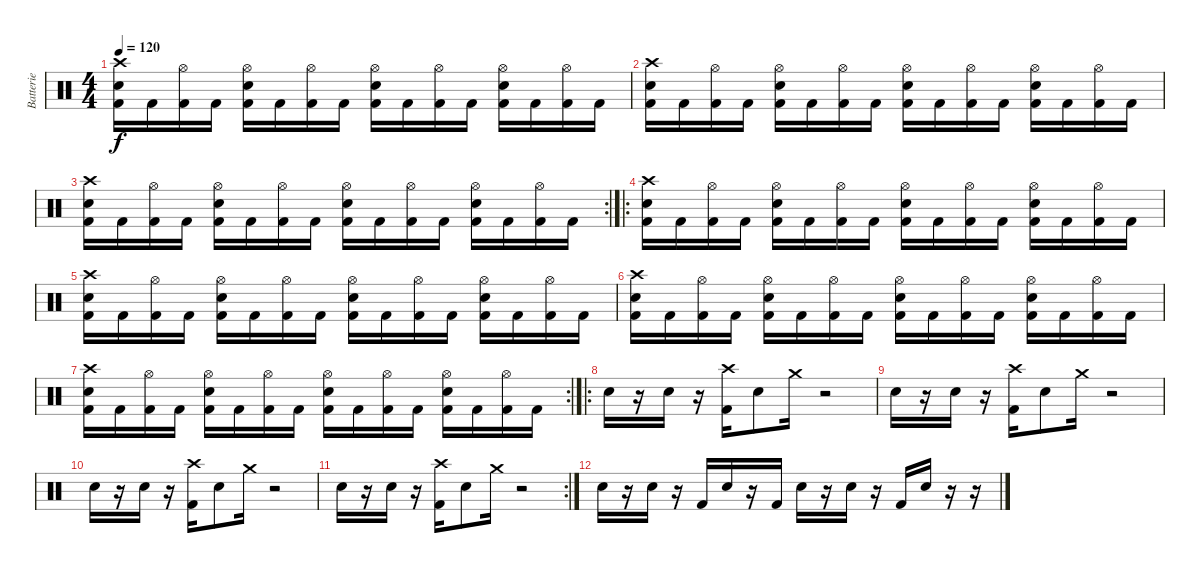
\track ("Batterie" "Batterie") {instrument percussion}
\staff {score}
\articulation defaults
\ts (4 4)
\tempo 120
\clef neutral
\ks c
("Crash high (hit)" "Electric Snare (hit)" "Kick (hit) 2").16{dy f} "Kick (hit) 2".16 ("Hi-Hat (open)" "Kick (hit) 2").16 "Kick (hit) 2".16 ("Hi-Hat (open)" "Electric Snare (hit)" "Kick (hit) 2").16 "Kick (hit) 2".16 ("Hi-Hat (open)" "Kick (hit) 2").16 "Kick (hit) 2".16 ("Hi-Hat (open)" "Electric Snare (hit)" "Kick (hit) 2").16 "Kick (hit) 2".16 ("Hi-Hat (open)" "Kick (hit) 2").16 "Kick (hit) 2".16 ("Hi-Hat (open)" "Electric Snare (hit)" "Kick (hit) 2").16 "Kick (hit) 2".16 ("Hi-Hat (open)" "Kick (hit) 2").16 "Kick (hit) 2".16 |
("Crash high (hit)" "Electric Snare (hit)" "Kick (hit) 2").16 "Kick (hit) 2".16 ("Hi-Hat (open)" "Kick (hit) 2").16 "Kick (hit) 2".16 ("Hi-Hat (open)" "Electric Snare (hit)" "Kick (hit) 2").16 "Kick (hit) 2".16 ("Hi-Hat (open)" "Kick (hit) 2").16 "Kick (hit) 2".16 ("Hi-Hat (open)" "Electric Snare (hit)" "Kick (hit) 2").16 "Kick (hit) 2".16 ("Hi-Hat (open)" "Kick (hit) 2").16 "Kick (hit) 2".16 ("Hi-Hat (open)" "Electric Snare (hit)" "Kick (hit) 2").16 "Kick (hit) 2".16 ("Hi-Hat (open)" "Kick (hit) 2").16 "Kick (hit) 2".16 |
\rc 2
("Crash high (hit)" "Electric Snare (hit)" "Kick (hit) 2").16 "Kick (hit) 2".16 ("Hi-Hat (open)" "Kick (hit) 2").16 "Kick (hit) 2".16 ("Hi-Hat (open)" "Electric Snare (hit)" "Kick (hit) 2").16 "Kick (hit) 2".16 ("Hi-Hat (open)" "Kick (hit) 2").16 "Kick (hit) 2".16 ("Hi-Hat (open)" "Electric Snare (hit)" "Kick (hit) 2").16 "Kick (hit) 2".16 ("Hi-Hat (open)" "Kick (hit) 2").16 "Kick (hit) 2".16 ("Hi-Hat (open)" "Electric Snare (hit)" "Kick (hit) 2").16 "Kick (hit) 2".16 ("Hi-Hat (open)" "Kick (hit) 2").16 "Kick (hit) 2".16 |
\ro
("Crash high (hit)" "Electric Snare (hit)" "Kick (hit) 2").16 "Kick (hit) 2".16 ("Hi-Hat (open)" "Kick (hit) 2").16 "Kick (hit) 2".16 ("Hi-Hat (open)" "Electric Snare (hit)" "Kick (hit) 2").16 "Kick (hit) 2".16 ("Hi-Hat (open)" "Kick (hit) 2").16 "Kick (hit) 2".16 ("Hi-Hat (open)" "Electric Snare (hit)" "Kick (hit) 2").16 "Kick (hit) 2".16 ("Hi-Hat (open)" "Kick (hit) 2").16 "Kick (hit) 2".16 ("Hi-Hat (open)" "Electric Snare (hit)" "Kick (hit) 2").16 "Kick (hit) 2".16 ("Hi-Hat (open)" "Kick (hit) 2").16 "Kick (hit) 2".16 |
("Crash high (hit)" "Electric Snare (hit)" "Kick (hit) 2").16 "Kick (hit) 2".16 ("Hi-Hat (open)" "Kick (hit) 2").16 "Kick (hit) 2".16 ("Hi-Hat (open)" "Electric Snare (hit)" "Kick (hit) 2").16 "Kick (hit) 2".16 ("Hi-Hat (open)" "Kick (hit) 2").16 "Kick (hit) 2".16 ("Hi-Hat (open)" "Electric Snare (hit)" "Kick (hit) 2").16 "Kick (hit) 2".16 ("Hi-Hat (open)" "Kick (hit) 2").16 "Kick (hit) 2".16 ("Hi-Hat (open)" "Electric Snare (hit)" "Kick (hit) 2").16 "Kick (hit) 2".16 ("Hi-Hat (open)" "Kick (hit) 2").16 "Kick (hit) 2".16 |
("Crash high (hit)" "Electric Snare (hit)" "Kick (hit) 2").16 "Kick (hit) 2".16 ("Hi-Hat (open)" "Kick (hit) 2").16 "Kick (hit) 2".16 ("Hi-Hat (open)" "Electric Snare (hit)" "Kick (hit) 2").16 "Kick (hit) 2".16 ("Hi-Hat (open)" "Kick (hit) 2").16 "Kick (hit) 2".16 ("Hi-Hat (open)" "Electric Snare (hit)" "Kick (hit) 2").16 "Kick (hit) 2".16 ("Hi-Hat (open)" "Kick (hit) 2").16 "Kick (hit) 2".16 ("Hi-Hat (open)" "Electric Snare (hit)" "Kick (hit) 2").16 "Kick (hit) 2".16 ("Hi-Hat (open)" "Kick (hit) 2").16 "Kick (hit) 2".16 |
\rc 2
("Crash high (hit)" "Electric Snare (hit)" "Kick (hit) 2").16 "Kick (hit) 2".16 ("Hi-Hat (open)" "Kick (hit) 2").16 "Kick (hit) 2".16 ("Hi-Hat (open)" "Electric Snare (hit)" "Kick (hit) 2").16 "Kick (hit) 2".16 ("Hi-Hat (open)" "Kick (hit) 2").16 "Kick (hit) 2".16 ("Hi-Hat (open)" "Electric Snare (hit)" "Kick (hit) 2").16 "Kick (hit) 2".16 ("Hi-Hat (open)" "Kick (hit) 2").16 "Kick (hit) 2".16 ("Hi-Hat (open)" "Electric Snare (hit)" "Kick (hit) 2").16 "Kick (hit) 2".16 ("Hi-Hat (open)" "Kick (hit) 2").16 "Kick (hit) 2".16 |
\ro "Electric Snare (hit)".16
r.16 "Electric Snare (hit)".16 r.16 ("Crash high (hit)" "Kick (hit) 2").16 "Electric Snare (hit)".8 "Crash medium (hit)".16 r.2 |
"Electric Snare (hit)".16 r.16 "Electric Snare (hit)".16 r.16 ("Crash high (hit)" "Kick (hit) 2").16 "Electric Snare (hit)".8 "Crash medium (hit)".16 r.2 |
"Electric Snare (hit)".16 r.16 "Electric Snare (hit)".16 r.16 ("Crash high (hit)" "Kick (hit) 2").16 "Electric Snare (hit)".8 "Crash medium (hit)".16 r.2 |
\rc 2 "Electric Snare (hit)".16
r.16 "Electric Snare (hit)".16 r.16 ("Crash high (hit)" "Kick (hit) 2").16 "Electric Snare (hit)".8 "Crash medium (hit)".16 r.2 |
"Electric Snare (hit)".16 r.16 "Electric Snare (hit)".16 r.16 "Kick (hit) 2".16 "Electric Snare (hit)".16 r.16 "Kick (hit) 2".16 "Electric Snare (hit)".16 r.16 "Electric Snare (hit)".16 r.16 "Kick (hit) 2".16 "Electric Snare (hit)".16 r.16 r.16
